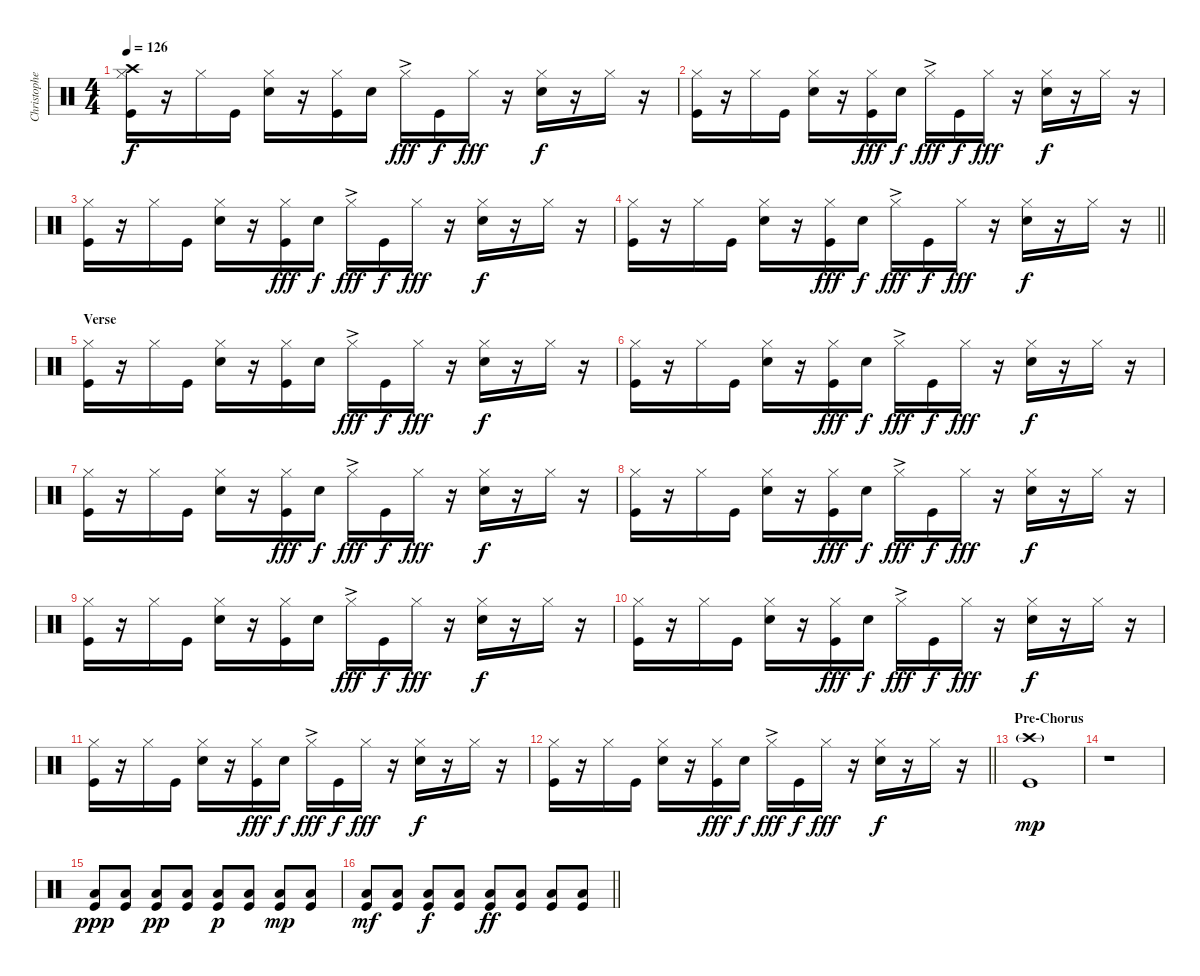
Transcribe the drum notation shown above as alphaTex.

\track ("Christopher - Drums" "Christophe") {mute instrument percussion}
\staff {score}
\articulation defaults
\ts (4 4)
\tempo 126
\clef neutral
\ks c
("Crash high (hit)" "Hi-Hat (closed)" "Kick (hit)").16{dy f} r.16 "Hi-Hat (closed)".16 "Kick (hit)".16 ("Hi-Hat (closed)" "Snare (hit) 2").16 r.16 ("Hi-Hat (closed)" "Kick (hit)").16 "Snare (hit) 2".16 "Hi-Hat (closed)"{ac}.16{dy fff} "Kick (hit)".16{dy f} "Hi-Hat (closed)".16{dy fff} r.16 ("Hi-Hat (closed)" "Snare (hit) 2").16{dy f} r.16 "Hi-Hat (closed)".16 r.16 |
("Hi-Hat (closed)" "Kick (hit)").16 r.16 "Hi-Hat (closed)".16 "Kick (hit)".16 ("Hi-Hat (closed)" "Snare (hit) 2").16 r.16 ("Hi-Hat (closed)" "Kick (hit)").16{dy fff} "Snare (hit) 2".16{dy f} "Hi-Hat (closed)"{ac}.16{dy fff} "Kick (hit)".16{dy f} "Hi-Hat (closed)".16{dy fff} r.16 ("Hi-Hat (closed)" "Snare (hit) 2").16{dy f} r.16 "Hi-Hat (closed)".16 r.16 |
("Hi-Hat (closed)" "Kick (hit)").16 r.16 "Hi-Hat (closed)".16 "Kick (hit)".16 ("Hi-Hat (closed)" "Snare (hit) 2").16 r.16 ("Hi-Hat (closed)" "Kick (hit)").16{dy fff} "Snare (hit) 2".16{dy f} "Hi-Hat (closed)"{ac}.16{dy fff} "Kick (hit)".16{dy f} "Hi-Hat (closed)".16{dy fff} r.16 ("Hi-Hat (closed)" "Snare (hit) 2").16{dy f} r.16 "Hi-Hat (closed)".16 r.16 |
\barLineRight lightlight
("Hi-Hat (closed)" "Kick (hit)").16 r.16 "Hi-Hat (closed)".16 "Kick (hit)".16 ("Hi-Hat (closed)" "Snare (hit) 2").16 r.16 ("Hi-Hat (closed)" "Kick (hit)").16{dy fff} "Snare (hit) 2".16{dy f} "Hi-Hat (closed)"{ac}.16{dy fff} "Kick (hit)".16{dy f} "Hi-Hat (closed)".16{dy fff} r.16 ("Hi-Hat (closed)" "Snare (hit) 2").16{dy f} r.16 "Hi-Hat (closed)".16 r.16 |
\section ("" "Verse")
("Hi-Hat (closed)" "Kick (hit)").16 r.16 "Hi-Hat (closed)".16 "Kick (hit)".16 ("Hi-Hat (closed)" "Snare (hit) 2").16 r.16 ("Hi-Hat (closed)" "Kick (hit)").16 "Snare (hit) 2".16 "Hi-Hat (closed)"{ac}.16{dy fff} "Kick (hit)".16{dy f} "Hi-Hat (closed)".16{dy fff} r.16 ("Hi-Hat (closed)" "Snare (hit) 2").16{dy f} r.16 "Hi-Hat (closed)".16 r.16 |
("Hi-Hat (closed)" "Kick (hit)").16 r.16 "Hi-Hat (closed)".16 "Kick (hit)".16 ("Hi-Hat (closed)" "Snare (hit) 2").16 r.16 ("Hi-Hat (closed)" "Kick (hit)").16{dy fff} "Snare (hit) 2".16{dy f} "Hi-Hat (closed)"{ac}.16{dy fff} "Kick (hit)".16{dy f} "Hi-Hat (closed)".16{dy fff} r.16 ("Hi-Hat (closed)" "Snare (hit) 2").16{dy f} r.16 "Hi-Hat (closed)".16 r.16 |
("Hi-Hat (closed)" "Kick (hit)").16 r.16 "Hi-Hat (closed)".16 "Kick (hit)".16 ("Hi-Hat (closed)" "Snare (hit) 2").16 r.16 ("Hi-Hat (closed)" "Kick (hit)").16{dy fff} "Snare (hit) 2".16{dy f} "Hi-Hat (closed)"{ac}.16{dy fff} "Kick (hit)".16{dy f} "Hi-Hat (closed)".16{dy fff} r.16 ("Hi-Hat (closed)" "Snare (hit) 2").16{dy f} r.16 "Hi-Hat (closed)".16 r.16 |
("Hi-Hat (closed)" "Kick (hit)").16 r.16 "Hi-Hat (closed)".16 "Kick (hit)".16 ("Hi-Hat (closed)" "Snare (hit) 2").16 r.16 ("Hi-Hat (closed)" "Kick (hit)").16{dy fff} "Snare (hit) 2".16{dy f} "Hi-Hat (closed)"{ac}.16{dy fff} "Kick (hit)".16{dy f} "Hi-Hat (closed)".16{dy fff} r.16 ("Hi-Hat (closed)" "Snare (hit) 2").16{dy f} r.16 "Hi-Hat (closed)".16 r.16 |
("Hi-Hat (closed)" "Kick (hit)").16 r.16 "Hi-Hat (closed)".16 "Kick (hit)".16 ("Hi-Hat (closed)" "Snare (hit) 2").16 r.16 ("Hi-Hat (closed)" "Kick (hit)").16 "Snare (hit) 2".16 "Hi-Hat (closed)"{ac}.16{dy fff} "Kick (hit)".16{dy f} "Hi-Hat (closed)".16{dy fff} r.16 ("Hi-Hat (closed)" "Snare (hit) 2").16{dy f} r.16 "Hi-Hat (closed)".16 r.16 |
("Hi-Hat (closed)" "Kick (hit)").16 r.16 "Hi-Hat (closed)".16 "Kick (hit)".16 ("Hi-Hat (closed)" "Snare (hit) 2").16 r.16 ("Hi-Hat (closed)" "Kick (hit)").16{dy fff} "Snare (hit) 2".16{dy f} "Hi-Hat (closed)"{ac}.16{dy fff} "Kick (hit)".16{dy f} "Hi-Hat (closed)".16{dy fff} r.16 ("Hi-Hat (closed)" "Snare (hit) 2").16{dy f} r.16 "Hi-Hat (closed)".16 r.16 |
("Hi-Hat (closed)" "Kick (hit)").16 r.16 "Hi-Hat (closed)".16 "Kick (hit)".16 ("Hi-Hat (closed)" "Snare (hit) 2").16 r.16 ("Hi-Hat (closed)" "Kick (hit)").16{dy fff} "Snare (hit) 2".16{dy f} "Hi-Hat (closed)"{ac}.16{dy fff} "Kick (hit)".16{dy f} "Hi-Hat (closed)".16{dy fff} r.16 ("Hi-Hat (closed)" "Snare (hit) 2").16{dy f} r.16 "Hi-Hat (closed)".16 r.16 |
\barLineRight lightlight
("Hi-Hat (closed)" "Kick (hit)").16 r.16 "Hi-Hat (closed)".16 "Kick (hit)".16 ("Hi-Hat (closed)" "Snare (hit) 2").16 r.16 ("Hi-Hat (closed)" "Kick (hit)").16{dy fff} "Snare (hit) 2".16{dy f} "Hi-Hat (closed)"{ac}.16{dy fff} "Kick (hit)".16{dy f} "Hi-Hat (closed)".16{dy fff} r.16 ("Hi-Hat (closed)" "Snare (hit) 2").16{dy f} r.16 "Hi-Hat (closed)".16 r.16 |
\section ("" "Pre-Chorus")
("Crash high (hit)"{g} "Kick (hit)").1{dy mp} |
r.1 |
("Low Floor Tom (hit)" "Kick (hit)").8{dy ppp} ("Low Floor Tom (hit)" "Kick (hit)").8 ("Low Floor Tom (hit)" "Kick (hit)").8{dy pp} ("Low Floor Tom (hit)" "Kick (hit)").8 ("Low Floor Tom (hit)" "Kick (hit)").8{dy p} ("Low Floor Tom (hit)" "Kick (hit)").8 ("Low Floor Tom (hit)" "Kick (hit)").8{dy mp} ("Low Floor Tom (hit)" "Kick (hit)").8 |
\barLineRight lightlight
("Low Floor Tom (hit)" "Kick (hit)").8{dy mf} ("Low Floor Tom (hit)" "Kick (hit)").8 ("Low Floor Tom (hit)" "Kick (hit)").8{dy f} ("Low Floor Tom (hit)" "Kick (hit)").8 ("Low Floor Tom (hit)" "Kick (hit)").8{dy ff} ("Low Floor Tom (hit)" "Kick (hit)").8 ("Low Floor Tom (hit)" "Kick (hit)").8 ("Low Floor Tom (hit)" "Kick (hit)").8
